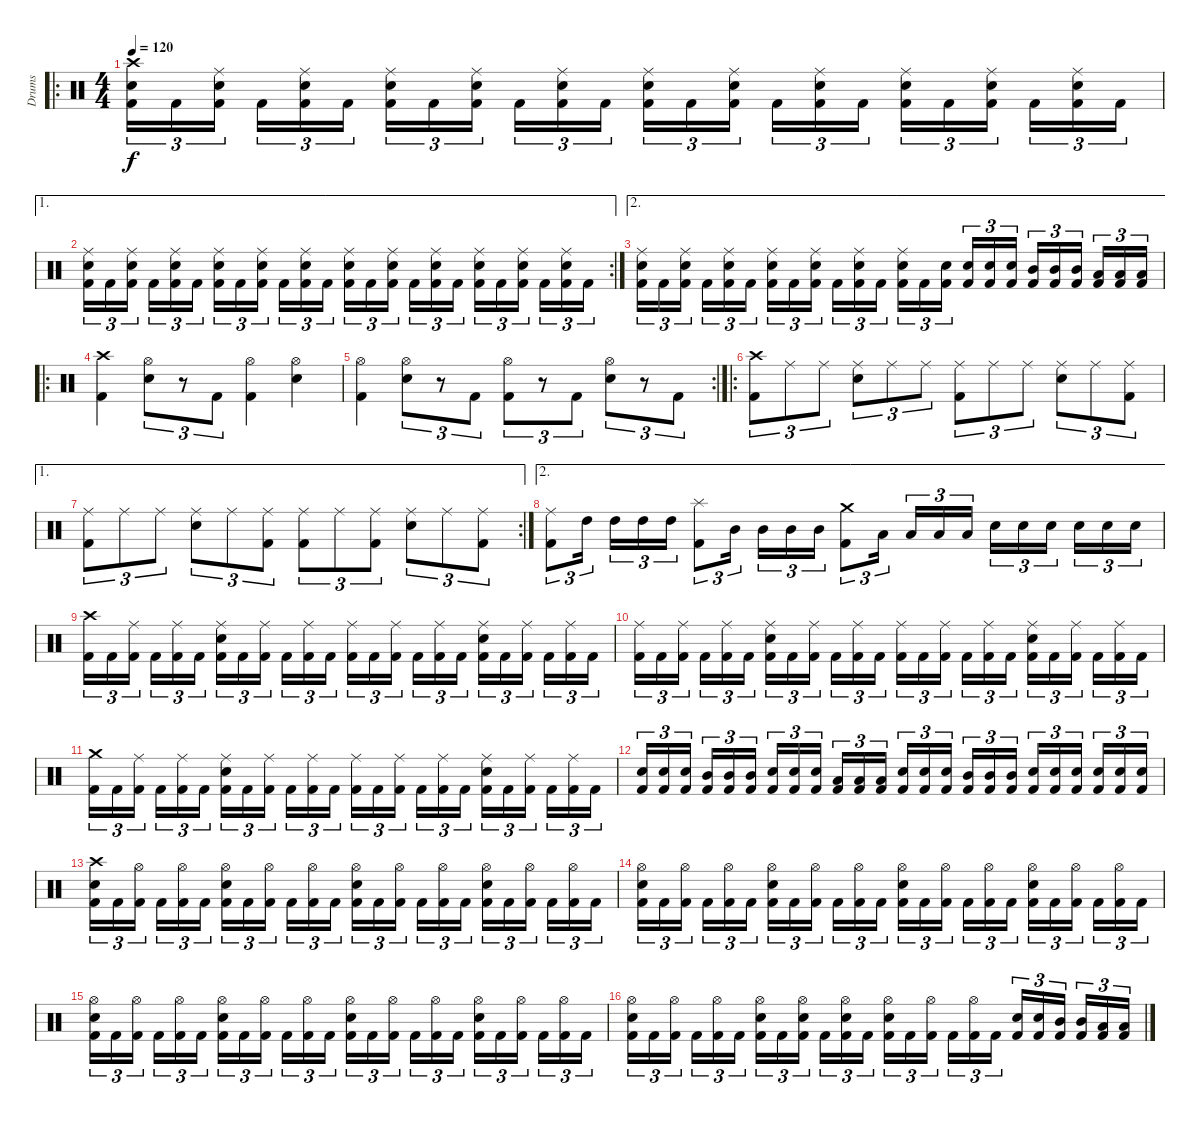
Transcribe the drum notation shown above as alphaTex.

\track ("Drums" "Drums") {instrument percussion}
\staff {score}
\articulation defaults
\ro
\ts (4 4)
\tempo 120
\clef neutral
\ks c
("Crash high (hit)" "Electric Snare (hit)" "Kick (hit) 2").16{tu (3 2) dy f} "Kick (hit) 2".16{tu (3 2)} ("Ride (middle)" "Electric Snare (hit)" "Kick (hit) 2").16{tu (3 2)} "Kick (hit) 2".16{tu (3 2)} ("Ride (middle)" "Electric Snare (hit)" "Kick (hit) 2").16{tu (3 2)} "Kick (hit) 2".16{tu (3 2)} ("Ride (middle)" "Electric Snare (hit)" "Kick (hit) 2").16{tu (3 2)} "Kick (hit) 2".16{tu (3 2)} ("Ride (middle)" "Electric Snare (hit)" "Kick (hit) 2").16{tu (3 2)} "Kick (hit) 2".16{tu (3 2)} ("Ride (middle)" "Electric Snare (hit)" "Kick (hit) 2").16{tu (3 2)} "Kick (hit) 2".16{tu (3 2)} ("Ride (middle)" "Electric Snare (hit)" "Kick (hit) 2").16{tu (3 2)} "Kick (hit) 2".16{tu (3 2)} ("Ride (middle)" "Electric Snare (hit)" "Kick (hit) 2").16{tu (3 2)} "Kick (hit) 2".16{tu (3 2)} ("Ride (middle)" "Electric Snare (hit)" "Kick (hit) 2").16{tu (3 2)} "Kick (hit) 2".16{tu (3 2)} ("Ride (middle)" "Electric Snare (hit)" "Kick (hit) 2").16{tu (3 2)} "Kick (hit) 2".16{tu (3 2)} ("Ride (middle)" "Electric Snare (hit)" "Kick (hit) 2").16{tu (3 2)} "Kick (hit) 2".16{tu (3 2)} ("Ride (middle)" "Electric Snare (hit)" "Kick (hit) 2").16{tu (3 2)} "Kick (hit) 2".16{tu (3 2)} |
\ae 1
\rc 2
("Ride (middle)" "Electric Snare (hit)" "Kick (hit) 2").16{tu (3 2)} "Kick (hit) 2".16{tu (3 2)} ("Ride (middle)" "Electric Snare (hit)" "Kick (hit) 2").16{tu (3 2)} "Kick (hit) 2".16{tu (3 2)} ("Ride (middle)" "Electric Snare (hit)" "Kick (hit) 2").16{tu (3 2)} "Kick (hit) 2".16{tu (3 2)} ("Ride (middle)" "Electric Snare (hit)" "Kick (hit) 2").16{tu (3 2)} "Kick (hit) 2".16{tu (3 2)} ("Ride (middle)" "Electric Snare (hit)" "Kick (hit) 2").16{tu (3 2)} "Kick (hit) 2".16{tu (3 2)} ("Ride (middle)" "Electric Snare (hit)" "Kick (hit) 2").16{tu (3 2)} "Kick (hit) 2".16{tu (3 2)} ("Ride (middle)" "Electric Snare (hit)" "Kick (hit) 2").16{tu (3 2)} "Kick (hit) 2".16{tu (3 2)} ("Ride (middle)" "Electric Snare (hit)" "Kick (hit) 2").16{tu (3 2)} "Kick (hit) 2".16{tu (3 2)} ("Ride (middle)" "Electric Snare (hit)" "Kick (hit) 2").16{tu (3 2)} "Kick (hit) 2".16{tu (3 2)} ("Ride (middle)" "Electric Snare (hit)" "Kick (hit) 2").16{tu (3 2)} "Kick (hit) 2".16{tu (3 2)} ("Ride (middle)" "Electric Snare (hit)" "Kick (hit) 2").16{tu (3 2)} "Kick (hit) 2".16{tu (3 2)} ("Ride (middle)" "Electric Snare (hit)" "Kick (hit) 2").16{tu (3 2)} "Kick (hit) 2".16{tu (3 2)} |
\ae 2
("Ride (middle)" "Electric Snare (hit)" "Kick (hit) 2").16{tu (3 2)} "Kick (hit) 2".16{tu (3 2)} ("Ride (middle)" "Electric Snare (hit)" "Kick (hit) 2").16{tu (3 2)} "Kick (hit) 2".16{tu (3 2)} ("Ride (middle)" "Electric Snare (hit)" "Kick (hit) 2").16{tu (3 2)} "Kick (hit) 2".16{tu (3 2)} ("Ride (middle)" "Electric Snare (hit)" "Kick (hit) 2").16{tu (3 2)} "Kick (hit) 2".16{tu (3 2)} ("Ride (middle)" "Electric Snare (hit)" "Kick (hit) 2").16{tu (3 2)} "Kick (hit) 2".16{tu (3 2)} ("Ride (middle)" "Electric Snare (hit)" "Kick (hit) 2").16{tu (3 2)} "Kick (hit) 2".16{tu (3 2)} ("Ride (middle)" "Electric Snare (hit)" "Kick (hit) 2").16{tu (3 2)} "Kick (hit) 2".16{tu (3 2)} ("Electric Snare (hit)" "Kick (hit) 2").16{tu (3 2)} ("Electric Snare (hit)" "Kick (hit) 2").16{tu (3 2)} ("Electric Snare (hit)" "Kick (hit) 2").16{tu (3 2)} ("Electric Snare (hit)" "Kick (hit) 2").16{tu (3 2)} ("Mid Tom (hit)" "Kick (hit) 2").16{tu (3 2)} ("Mid Tom (hit)" "Kick (hit) 2").16{tu (3 2)} ("Mid Tom (hit)" "Kick (hit) 2").16{tu (3 2)} ("Low Tom (hit)" "Kick (hit) 2").16{tu (3 2)} ("Low Tom (hit)" "Kick (hit) 2").16{tu (3 2)} ("Low Tom (hit)" "Kick (hit) 2").16{tu (3 2)} |
\ro
("Crash high (hit)" "Kick (hit) 2").4 ("Hi-Hat (open)" "Electric Snare (hit)").8{tu (3 2)} r.8{tu (3 2)} "Kick (hit) 2".8{tu (3 2)} ("Hi-Hat (open)" "Kick (hit) 2").4 ("Hi-Hat (open)" "Electric Snare (hit)").4 |
\rc 2
("Hi-Hat (open)" "Kick (hit) 2").4 ("Hi-Hat (open)" "Electric Snare (hit)").8{tu (3 2)} r.8{tu (3 2)} "Kick (hit) 2".8{tu (3 2)} ("Hi-Hat (open)" "Kick (hit) 2").8{tu (3 2)} r.8{tu (3 2)} "Kick (hit) 2".8{tu (3 2)} ("Hi-Hat (open)" "Electric Snare (hit)").8{tu (3 2)} r.8{tu (3 2)} "Kick (hit) 2".8{tu (3 2)} |
\ro
("Crash high (hit)" "Kick (hit) 2").8{tu (3 2)} "Ride (middle)".8{tu (3 2)} "Ride (middle)".8{tu (3 2)} ("Ride (middle)" "Electric Snare (hit)").8{tu (3 2)} "Ride (middle)".8{tu (3 2)} "Ride (middle)".8{tu (3 2)} ("Ride (middle)" "Kick (hit) 2").8{tu (3 2)} "Ride (middle)".8{tu (3 2)} "Ride (middle)".8{tu (3 2)} ("Ride (middle)" "Electric Snare (hit)").8{tu (3 2)} "Ride (middle)".8{tu (3 2)} ("Ride (middle)" "Kick (hit) 2").8{tu (3 2)} |
\ae 1
\rc 2
("Ride (middle)" "Kick (hit) 2").8{tu (3 2)} "Ride (middle)".8{tu (3 2)} "Ride (middle)".8{tu (3 2)} ("Ride (middle)" "Electric Snare (hit)").8{tu (3 2)} "Ride (middle)".8{tu (3 2)} ("Ride (middle)" "Kick (hit) 2").8{tu (3 2)} ("Ride (middle)" "Kick (hit) 2").8{tu (3 2)} "Ride (middle)".8{tu (3 2)} ("Ride (middle)" "Kick (hit) 2").8{tu (3 2)} ("Ride (middle)" "Electric Snare (hit)").8{tu (3 2)} "Ride (middle)".8{tu (3 2)} ("Ride (middle)" "Kick (hit) 2").8{tu (3 2)} |
\ae 2
("Ride (middle)" "Kick (hit) 2").8{tu (3 2)} "High Tom (hit)".16{tu (3 2)} "High Tom (hit)".16{tu (3 2)} "High Tom (hit)".16{tu (3 2)} "High Tom (hit)".16{tu (3 2)} ("Splash (hit)" "Kick (hit) 2").8{tu (3 2)} "Mid Tom (hit)".16{tu (3 2)} "Mid Tom (hit)".16{tu (3 2)} "Mid Tom (hit)".16{tu (3 2)} "Mid Tom (hit)".16{tu (3 2)} ("Crash medium (hit)" "Kick (hit) 2").8{tu (3 2)} "Low Tom (hit)".16{tu (3 2)} "Low Tom (hit)".16{tu (3 2)} "Low Tom (hit)".16{tu (3 2)} "Low Tom (hit)".16{tu (3 2)} "Electric Snare (hit)".16{tu (3 2)} "Electric Snare (hit)".16{tu (3 2)} "Electric Snare (hit)".16{tu (3 2)} "Electric Snare (hit)".16{tu (3 2)} "Electric Snare (hit)".16{tu (3 2)} "Electric Snare (hit)".16{tu (3 2)} |
("Crash high (hit)" "Kick (hit) 2").16{tu (3 2)} "Kick (hit) 2".16{tu (3 2)} ("Ride (middle)" "Kick (hit) 2").16{tu (3 2)} "Kick (hit) 2".16{tu (3 2)} ("Ride (middle)" "Kick (hit) 2").16{tu (3 2)} "Kick (hit) 2".16{tu (3 2)} ("Ride (middle)" "Electric Snare (hit)" "Kick (hit) 2").16{tu (3 2)} "Kick (hit) 2".16{tu (3 2)} ("Ride (middle)" "Kick (hit) 2").16{tu (3 2)} "Kick (hit) 2".16{tu (3 2)} ("Ride (middle)" "Kick (hit) 2").16{tu (3 2)} "Kick (hit) 2".16{tu (3 2)} ("Ride (middle)" "Kick (hit) 2").16{tu (3 2)} "Kick (hit) 2".16{tu (3 2)} ("Ride (middle)" "Kick (hit) 2").16{tu (3 2)} "Kick (hit) 2".16{tu (3 2)} ("Ride (middle)" "Kick (hit) 2").16{tu (3 2)} "Kick (hit) 2".16{tu (3 2)} ("Ride (middle)" "Electric Snare (hit)" "Kick (hit) 2").16{tu (3 2)} "Kick (hit) 2".16{tu (3 2)} ("Ride (middle)" "Kick (hit) 2").16{tu (3 2)} "Kick (hit) 2".16{tu (3 2)} ("Ride (middle)" "Kick (hit) 2").16{tu (3 2)} "Kick (hit) 2".16{tu (3 2)} |
("Ride (middle)" "Kick (hit) 2").16{tu (3 2)} "Kick (hit) 2".16{tu (3 2)} ("Ride (middle)" "Kick (hit) 2").16{tu (3 2)} "Kick (hit) 2".16{tu (3 2)} ("Ride (middle)" "Kick (hit) 2").16{tu (3 2)} "Kick (hit) 2".16{tu (3 2)} ("Ride (middle)" "Electric Snare (hit)" "Kick (hit) 2").16{tu (3 2)} "Kick (hit) 2".16{tu (3 2)} ("Ride (middle)" "Kick (hit) 2").16{tu (3 2)} "Kick (hit) 2".16{tu (3 2)} ("Ride (middle)" "Kick (hit) 2").16{tu (3 2)} "Kick (hit) 2".16{tu (3 2)} ("Ride (middle)" "Kick (hit) 2").16{tu (3 2)} "Kick (hit) 2".16{tu (3 2)} ("Ride (middle)" "Kick (hit) 2").16{tu (3 2)} "Kick (hit) 2".16{tu (3 2)} ("Ride (middle)" "Kick (hit) 2").16{tu (3 2)} "Kick (hit) 2".16{tu (3 2)} ("Ride (middle)" "Electric Snare (hit)" "Kick (hit) 2").16{tu (3 2)} "Kick (hit) 2".16{tu (3 2)} ("Ride (middle)" "Kick (hit) 2").16{tu (3 2)} "Kick (hit) 2".16{tu (3 2)} ("Ride (middle)" "Kick (hit) 2").16{tu (3 2)} "Kick (hit) 2".16{tu (3 2)} |
("Crash medium (hit)" "Kick (hit) 2").16{tu (3 2)} "Kick (hit) 2".16{tu (3 2)} ("Ride (middle)" "Kick (hit) 2").16{tu (3 2)} "Kick (hit) 2".16{tu (3 2)} ("Ride (middle)" "Kick (hit) 2").16{tu (3 2)} "Kick (hit) 2".16{tu (3 2)} ("Ride (middle)" "Electric Snare (hit)" "Kick (hit) 2").16{tu (3 2)} "Kick (hit) 2".16{tu (3 2)} ("Ride (middle)" "Kick (hit) 2").16{tu (3 2)} "Kick (hit) 2".16{tu (3 2)} ("Ride (middle)" "Kick (hit) 2").16{tu (3 2)} "Kick (hit) 2".16{tu (3 2)} ("Ride (middle)" "Kick (hit) 2").16{tu (3 2)} "Kick (hit) 2".16{tu (3 2)} ("Ride (middle)" "Kick (hit) 2").16{tu (3 2)} "Kick (hit) 2".16{tu (3 2)} ("Ride (middle)" "Kick (hit) 2").16{tu (3 2)} "Kick (hit) 2".16{tu (3 2)} ("Ride (middle)" "Electric Snare (hit)" "Kick (hit) 2").16{tu (3 2)} "Kick (hit) 2".16{tu (3 2)} ("Ride (middle)" "Kick (hit) 2").16{tu (3 2)} "Kick (hit) 2".16{tu (3 2)} ("Ride (middle)" "Kick (hit) 2").16{tu (3 2)} "Kick (hit) 2".16{tu (3 2)} |
("Electric Snare (hit)" "Kick (hit) 2").16{tu (3 2)} ("Electric Snare (hit)" "Kick (hit) 2").16{tu (3 2)} ("Electric Snare (hit)" "Kick (hit) 2").16{tu (3 2)} ("Mid Tom (hit)" "Kick (hit) 2").16{tu (3 2)} ("Mid Tom (hit)" "Kick (hit) 2").16{tu (3 2)} ("Mid Tom (hit)" "Kick (hit) 2").16{tu (3 2)} ("Electric Snare (hit)" "Kick (hit) 2").16{tu (3 2)} ("Electric Snare (hit)" "Kick (hit) 2").16{tu (3 2)} ("Electric Snare (hit)" "Kick (hit) 2").16{tu (3 2)} ("Low Tom (hit)" "Kick (hit) 2").16{tu (3 2)} ("Low Tom (hit)" "Kick (hit) 2").16{tu (3 2)} ("Low Tom (hit)" "Kick (hit) 2").16{tu (3 2)} ("Electric Snare (hit)" "Kick (hit) 2").16{tu (3 2)} ("Electric Snare (hit)" "Kick (hit) 2").16{tu (3 2)} ("Electric Snare (hit)" "Kick (hit) 2").16{tu (3 2)} ("Mid Tom (hit)" "Kick (hit) 2").16{tu (3 2)} ("Mid Tom (hit)" "Kick (hit) 2").16{tu (3 2)} ("Mid Tom (hit)" "Kick (hit) 2").16{tu (3 2)} ("Electric Snare (hit)" "Kick (hit) 2").16{tu (3 2)} ("Electric Snare (hit)" "Kick (hit) 2").16{tu (3 2)} ("Electric Snare (hit)" "Kick (hit) 2").16{tu (3 2)} ("Electric Snare (hit)" "Kick (hit) 2").16{tu (3 2)} ("Electric Snare (hit)" "Kick (hit) 2").16{tu (3 2)} ("Electric Snare (hit)" "Kick (hit) 2").16{tu (3 2)} |
("Crash high (hit)" "Electric Snare (hit)" "Kick (hit) 2").16{tu (3 2)} "Kick (hit) 2".16{tu (3 2)} ("Hi-Hat (open)" "Kick (hit) 2").16{tu (3 2)} "Kick (hit) 2".16{tu (3 2)} ("Hi-Hat (open)" "Kick (hit) 2").16{tu (3 2)} "Kick (hit) 2".16{tu (3 2)} ("Hi-Hat (open)" "Electric Snare (hit)" "Kick (hit) 2").16{tu (3 2)} "Kick (hit) 2".16{tu (3 2)} ("Hi-Hat (open)" "Kick (hit) 2").16{tu (3 2)} "Kick (hit) 2".16{tu (3 2)} ("Hi-Hat (open)" "Kick (hit) 2").16{tu (3 2)} "Kick (hit) 2".16{tu (3 2)} ("Hi-Hat (open)" "Electric Snare (hit)" "Kick (hit) 2").16{tu (3 2)} "Kick (hit) 2".16{tu (3 2)} ("Hi-Hat (open)" "Kick (hit) 2").16{tu (3 2)} "Kick (hit) 2".16{tu (3 2)} ("Hi-Hat (open)" "Kick (hit) 2").16{tu (3 2)} "Kick (hit) 2".16{tu (3 2)} ("Hi-Hat (open)" "Electric Snare (hit)" "Kick (hit) 2").16{tu (3 2)} "Kick (hit) 2".16{tu (3 2)} ("Hi-Hat (open)" "Kick (hit) 2").16{tu (3 2)} "Kick (hit) 2".16{tu (3 2)} ("Hi-Hat (open)" "Kick (hit) 2").16{tu (3 2)} "Kick (hit) 2".16{tu (3 2)} |
("Hi-Hat (open)" "Electric Snare (hit)" "Kick (hit) 2").16{tu (3 2)} "Kick (hit) 2".16{tu (3 2)} ("Hi-Hat (open)" "Kick (hit) 2").16{tu (3 2)} "Kick (hit) 2".16{tu (3 2)} ("Hi-Hat (open)" "Kick (hit) 2").16{tu (3 2)} "Kick (hit) 2".16{tu (3 2)} ("Hi-Hat (open)" "Electric Snare (hit)" "Kick (hit) 2").16{tu (3 2)} "Kick (hit) 2".16{tu (3 2)} ("Hi-Hat (open)" "Kick (hit) 2").16{tu (3 2)} "Kick (hit) 2".16{tu (3 2)} ("Hi-Hat (open)" "Kick (hit) 2").16{tu (3 2)} "Kick (hit) 2".16{tu (3 2)} ("Hi-Hat (open)" "Electric Snare (hit)" "Kick (hit) 2").16{tu (3 2)} "Kick (hit) 2".16{tu (3 2)} ("Hi-Hat (open)" "Kick (hit) 2").16{tu (3 2)} "Kick (hit) 2".16{tu (3 2)} ("Hi-Hat (open)" "Kick (hit) 2").16{tu (3 2)} "Kick (hit) 2".16{tu (3 2)} ("Hi-Hat (open)" "Electric Snare (hit)" "Kick (hit) 2").16{tu (3 2)} "Kick (hit) 2".16{tu (3 2)} ("Hi-Hat (open)" "Kick (hit) 2").16{tu (3 2)} "Kick (hit) 2".16{tu (3 2)} ("Hi-Hat (open)" "Kick (hit) 2").16{tu (3 2)} "Kick (hit) 2".16{tu (3 2)} |
("Hi-Hat (open)" "Electric Snare (hit)" "Kick (hit) 2").16{tu (3 2)} "Kick (hit) 2".16{tu (3 2)} ("Hi-Hat (open)" "Kick (hit) 2").16{tu (3 2)} "Kick (hit) 2".16{tu (3 2)} ("Hi-Hat (open)" "Kick (hit) 2").16{tu (3 2)} "Kick (hit) 2".16{tu (3 2)} ("Hi-Hat (open)" "Electric Snare (hit)" "Kick (hit) 2").16{tu (3 2)} "Kick (hit) 2".16{tu (3 2)} ("Hi-Hat (open)" "Kick (hit) 2").16{tu (3 2)} "Kick (hit) 2".16{tu (3 2)} ("Hi-Hat (open)" "Kick (hit) 2").16{tu (3 2)} "Kick (hit) 2".16{tu (3 2)} ("Hi-Hat (open)" "Electric Snare (hit)" "Kick (hit) 2").16{tu (3 2)} "Kick (hit) 2".16{tu (3 2)} ("Hi-Hat (open)" "Kick (hit) 2").16{tu (3 2)} "Kick (hit) 2".16{tu (3 2)} ("Hi-Hat (open)" "Kick (hit) 2").16{tu (3 2)} "Kick (hit) 2".16{tu (3 2)} ("Hi-Hat (open)" "Electric Snare (hit)" "Kick (hit) 2").16{tu (3 2)} "Kick (hit) 2".16{tu (3 2)} ("Hi-Hat (open)" "Kick (hit) 2").16{tu (3 2)} "Kick (hit) 2".16{tu (3 2)} ("Hi-Hat (open)" "Kick (hit) 2").16{tu (3 2)} "Kick (hit) 2".16{tu (3 2)} |
("Hi-Hat (open)" "Electric Snare (hit)" "Kick (hit) 2").16{tu (3 2)} "Kick (hit) 2".16{tu (3 2)} ("Hi-Hat (open)" "Kick (hit) 2").16{tu (3 2)} "Kick (hit) 2".16{tu (3 2)} ("Hi-Hat (open)" "Kick (hit) 2").16{tu (3 2)} "Kick (hit) 2".16{tu (3 2)} ("Hi-Hat (open)" "Electric Snare (hit)" "Kick (hit) 2").16{tu (3 2)} "Kick (hit) 2".16{tu (3 2)} ("Hi-Hat (open)" "Electric Snare (hit)" "Kick (hit) 2").16{tu (3 2)} "Kick (hit) 2".16{tu (3 2)} ("Hi-Hat (open)" "Electric Snare (hit)" "Kick (hit) 2").16{tu (3 2)} "Kick (hit) 2".16{tu (3 2)} ("Hi-Hat (open)" "Electric Snare (hit)" "Kick (hit) 2").16{tu (3 2)} "Kick (hit) 2".16{tu (3 2)} ("Hi-Hat (open)" "Kick (hit) 2").16{tu (3 2)} "Kick (hit) 2".16{tu (3 2)} ("Hi-Hat (open)" "Kick (hit) 2").16{tu (3 2)} "Kick (hit) 2".16{tu (3 2)} ("Electric Snare (hit)" "Kick (hit) 2").16{tu (3 2)} ("Electric Snare (hit)" "Kick (hit) 2").16{tu (3 2)} ("Mid Tom (hit)" "Kick (hit) 2").16{tu (3 2)} ("Mid Tom (hit)" "Kick (hit) 2").16{tu (3 2)} ("Low Tom (hit)" "Kick (hit) 2").16{tu (3 2)} ("Low Tom (hit)" "Kick (hit) 2").16{tu (3 2)}
